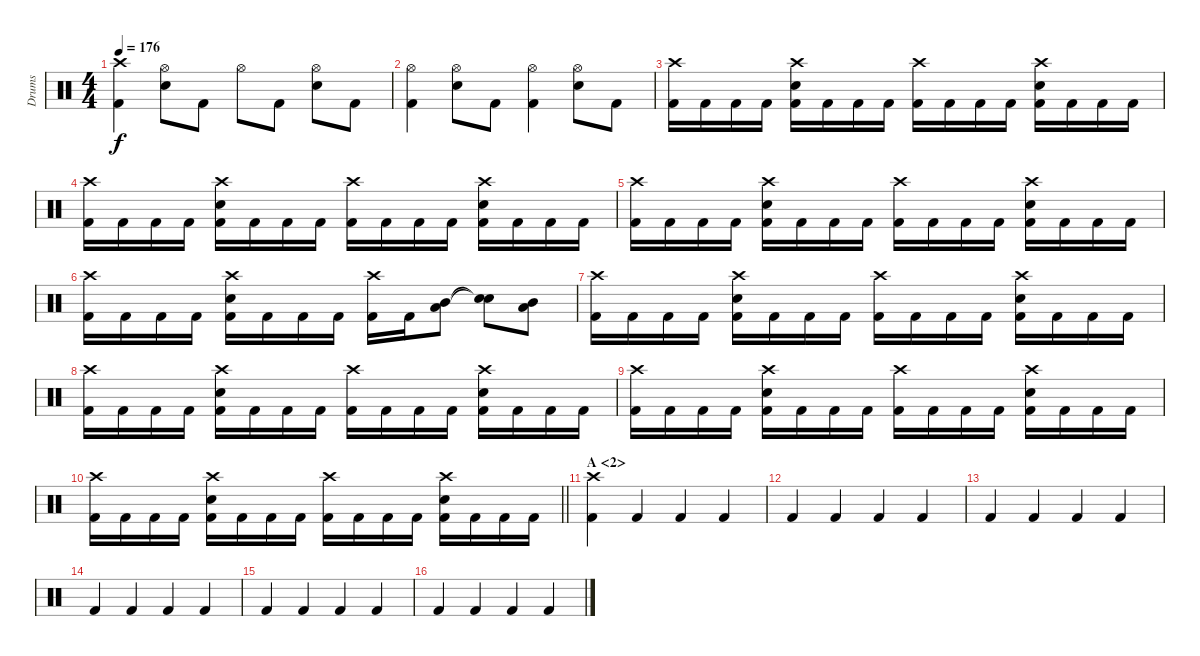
\track ("Drums" "Drums") {instrument percussion}
\staff {score}
\articulation defaults
\ts (4 4)
\tempo 176
\clef neutral
\ks c
("Crash high (hit)" "Kick (hit) 2").4{dy f} ("Hi-Hat (open)" "Electric Snare (hit)").8 "Kick (hit) 2".8 "Hi-Hat (open)".8 "Kick (hit) 2".8 ("Hi-Hat (open)" "Electric Snare (hit)").8 "Kick (hit) 2".8 |
("Hi-Hat (open)" "Kick (hit) 2").4 ("Hi-Hat (open)" "Electric Snare (hit)").8 "Kick (hit) 2".8 ("Hi-Hat (open)" "Kick (hit) 2").4 ("Hi-Hat (open)" "Electric Snare (hit)").8 "Kick (hit) 2".8 |
("Crash high (hit)" "Kick (hit) 2").16 "Kick (hit) 2".16 "Kick (hit) 2".16 "Kick (hit) 2".16 ("Crash high (hit)" "Electric Snare (hit)" "Kick (hit) 2").16 "Kick (hit) 2".16 "Kick (hit) 2".16 "Kick (hit) 2".16 ("Crash high (hit)" "Kick (hit) 2").16 "Kick (hit) 2".16 "Kick (hit) 2".16 "Kick (hit) 2".16 ("Crash high (hit)" "Electric Snare (hit)" "Kick (hit) 2").16 "Kick (hit) 2".16 "Kick (hit) 2".16 "Kick (hit) 2".16 |
("Crash high (hit)" "Kick (hit) 2").16 "Kick (hit) 2".16 "Kick (hit) 2".16 "Kick (hit) 2".16 ("Crash high (hit)" "Electric Snare (hit)" "Kick (hit) 2").16 "Kick (hit) 2".16 "Kick (hit) 2".16 "Kick (hit) 2".16 ("Crash high (hit)" "Kick (hit) 2").16 "Kick (hit) 2".16 "Kick (hit) 2".16 "Kick (hit) 2".16 ("Crash high (hit)" "Electric Snare (hit)" "Kick (hit) 2").16 "Kick (hit) 2".16 "Kick (hit) 2".16 "Kick (hit) 2".16 |
("Crash high (hit)" "Kick (hit) 2").16 "Kick (hit) 2".16 "Kick (hit) 2".16 "Kick (hit) 2".16 ("Crash high (hit)" "Electric Snare (hit)" "Kick (hit) 2").16 "Kick (hit) 2".16 "Kick (hit) 2".16 "Kick (hit) 2".16 ("Crash high (hit)" "Kick (hit) 2").16 "Kick (hit) 2".16 "Kick (hit) 2".16 "Kick (hit) 2".16 ("Crash high (hit)" "Electric Snare (hit)" "Kick (hit) 2").16 "Kick (hit) 2".16 "Kick (hit) 2".16 "Kick (hit) 2".16 |
("Crash high (hit)" "Kick (hit) 2").16 "Kick (hit) 2".16 "Kick (hit) 2".16 "Kick (hit) 2".16 ("Crash high (hit)" "Electric Snare (hit)" "Kick (hit) 2").16 "Kick (hit) 2".16 "Kick (hit) 2".16 "Kick (hit) 2".16 ("Crash high (hit)" "Kick (hit) 2").16 "Kick (hit) 2".16 ("Mid Tom (hit)" "Low Tom (hit)").8 ("Snare (hit)"{t} "Snare (hit)"{t}).8 ("Mid Tom (hit)" "Low Tom (hit)").8 |
("Crash high (hit)" "Kick (hit) 2").16 "Kick (hit) 2".16 "Kick (hit) 2".16 "Kick (hit) 2".16 ("Crash high (hit)" "Electric Snare (hit)" "Kick (hit) 2").16 "Kick (hit) 2".16 "Kick (hit) 2".16 "Kick (hit) 2".16 ("Crash high (hit)" "Kick (hit) 2").16 "Kick (hit) 2".16 "Kick (hit) 2".16 "Kick (hit) 2".16 ("Crash high (hit)" "Electric Snare (hit)" "Kick (hit) 2").16 "Kick (hit) 2".16 "Kick (hit) 2".16 "Kick (hit) 2".16 |
("Crash high (hit)" "Kick (hit) 2").16 "Kick (hit) 2".16 "Kick (hit) 2".16 "Kick (hit) 2".16 ("Crash high (hit)" "Electric Snare (hit)" "Kick (hit) 2").16 "Kick (hit) 2".16 "Kick (hit) 2".16 "Kick (hit) 2".16 ("Crash high (hit)" "Kick (hit) 2").16 "Kick (hit) 2".16 "Kick (hit) 2".16 "Kick (hit) 2".16 ("Crash high (hit)" "Electric Snare (hit)" "Kick (hit) 2").16 "Kick (hit) 2".16 "Kick (hit) 2".16 "Kick (hit) 2".16 |
("Crash high (hit)" "Kick (hit) 2").16 "Kick (hit) 2".16 "Kick (hit) 2".16 "Kick (hit) 2".16 ("Crash high (hit)" "Electric Snare (hit)" "Kick (hit) 2").16 "Kick (hit) 2".16 "Kick (hit) 2".16 "Kick (hit) 2".16 ("Crash high (hit)" "Kick (hit) 2").16 "Kick (hit) 2".16 "Kick (hit) 2".16 "Kick (hit) 2".16 ("Crash high (hit)" "Electric Snare (hit)" "Kick (hit) 2").16 "Kick (hit) 2".16 "Kick (hit) 2".16 "Kick (hit) 2".16 |
\barLineRight lightlight
("Crash high (hit)" "Kick (hit) 2").16 "Kick (hit) 2".16 "Kick (hit) 2".16 "Kick (hit) 2".16 ("Crash high (hit)" "Electric Snare (hit)" "Kick (hit) 2").16 "Kick (hit) 2".16 "Kick (hit) 2".16 "Kick (hit) 2".16 ("Crash high (hit)" "Kick (hit) 2").16 "Kick (hit) 2".16 "Kick (hit) 2".16 "Kick (hit) 2".16 ("Crash high (hit)" "Electric Snare (hit)" "Kick (hit) 2").16 "Kick (hit) 2".16 "Kick (hit) 2".16 "Kick (hit) 2".16 |
\section ("" "A <2>")
("Crash high (hit)" "Kick (hit) 2").4 "Kick (hit) 2".4 "Kick (hit) 2".4 "Kick (hit) 2".4 |
"Kick (hit) 2".4 "Kick (hit) 2".4 "Kick (hit) 2".4 "Kick (hit) 2".4 |
"Kick (hit) 2".4 "Kick (hit) 2".4 "Kick (hit) 2".4 "Kick (hit) 2".4 |
"Kick (hit) 2".4 "Kick (hit) 2".4 "Kick (hit) 2".4 "Kick (hit) 2".4 |
"Kick (hit) 2".4 "Kick (hit) 2".4 "Kick (hit) 2".4 "Kick (hit) 2".4 |
"Kick (hit) 2".4 "Kick (hit) 2".4 "Kick (hit) 2".4 "Kick (hit) 2".4
